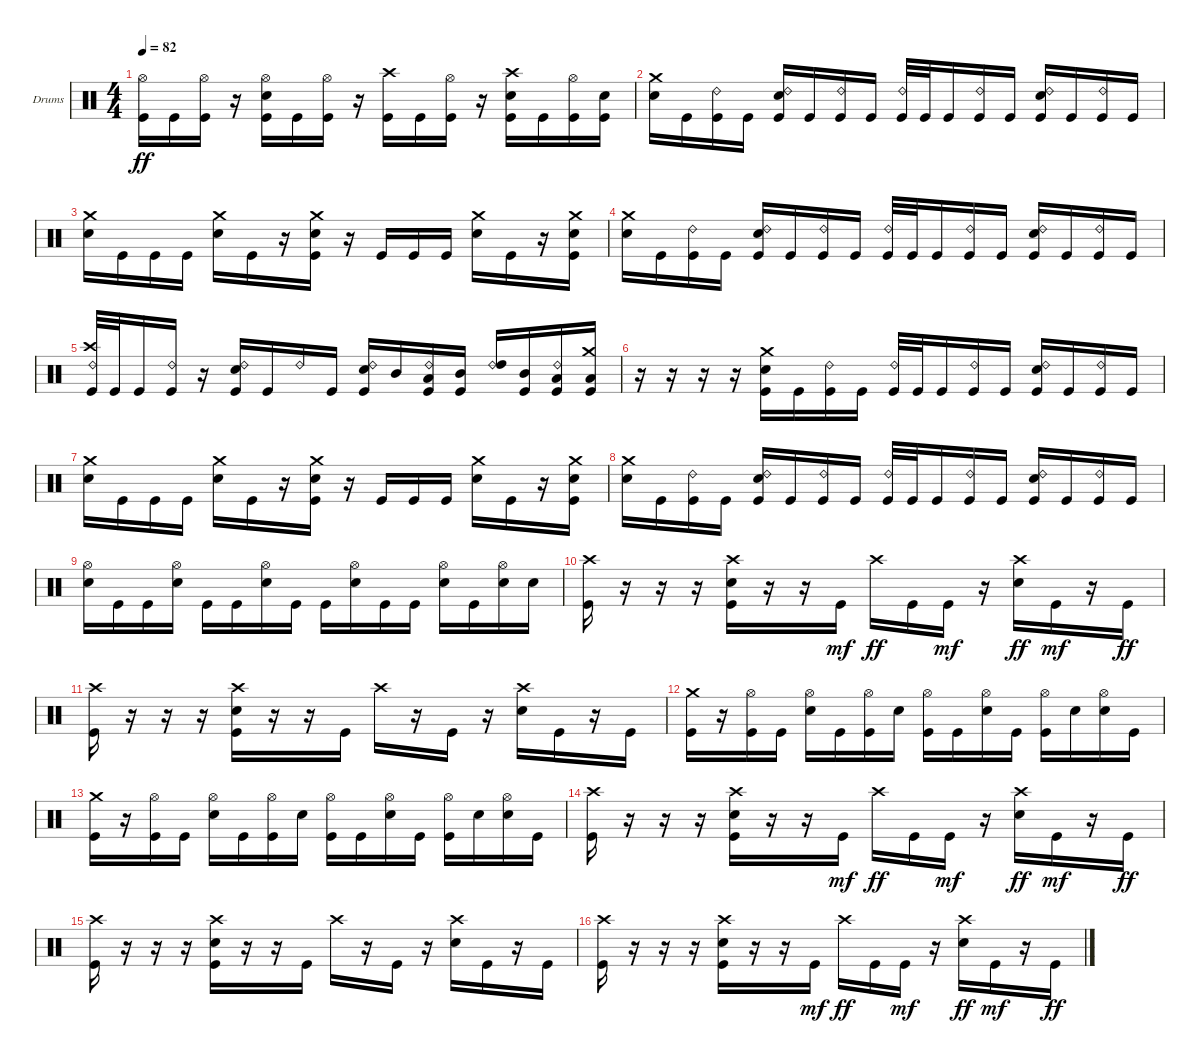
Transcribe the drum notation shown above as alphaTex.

\bracketExtendMode groupsimilarinstruments
\firstSystemTrackNameOrientation horizontal
\otherSystemsTrackNameOrientation horizontal
\track ("Kaleb - Drums" "Drums") {instrument percussion}
\staff {score}
\articulation defaults
\ts (4 4)
\tempo 82
\clef neutral
\ks c
("Kick (hit)" "Hi-Hat (open)").16{dy ff} "Kick (hit)".16 ("Kick (hit)" "Hi-Hat (open)").16 r.16 ("Kick (hit)" "Snare (hit) 2" "Hi-Hat (open)").16 "Kick (hit)".16 ("Kick (hit)" "Hi-Hat (open)").16 r.16 ("Kick (hit)" "Crash high (hit)").16 "Kick (hit)".16 ("Kick (hit)" "Hi-Hat (open)").16 r.16 ("Kick (hit)" "Snare (hit) 2" "Crash high (hit)").16 "Kick (hit)".16 ("Kick (hit)" "Hi-Hat (open)").16 ("Kick (hit)" "Snare (hit) 2").16 |
("Snare (hit) 2" "Crash medium (hit)").16 "Kick (hit)".16 ("Kick (hit)" "Ride (bell) 2").16 "Kick (hit)".16 ("Kick (hit)" "Snare (hit) 2" "Ride (bell) 2").16 "Kick (hit)".16 ("Kick (hit)" "Ride (bell) 2").16 "Kick (hit)".16 ("Kick (hit)" "Ride (bell) 2").32 "Kick (hit)".32 "Kick (hit)".16 ("Kick (hit)" "Ride (bell) 2").16 "Kick (hit)".16 ("Kick (hit)" "Snare (hit) 2" "Ride (bell) 2").16 "Kick (hit)".16 ("Kick (hit)" "Ride (bell) 2").16 "Kick (hit)".16 |
("Snare (hit) 2" "Crash medium (hit)").16 "Kick (hit)".16 "Kick (hit)".16 "Kick (hit)".16 ("Crash medium (hit)" "Snare (hit) 2").16 "Kick (hit)".16 r.16 ("Kick (hit)" "Snare (hit) 2" "Crash medium (hit)").16 r.16 "Kick (hit)".16 "Kick (hit)".16 "Kick (hit)".16 ("Crash medium (hit)" "Snare (hit) 2").16 "Kick (hit)".16 r.16 ("Kick (hit)" "Snare (hit) 2" "Crash medium (hit)").16 |
("Snare (hit) 2" "Crash medium (hit)").16 "Kick (hit)".16 ("Kick (hit)" "Ride (bell) 2").16 "Kick (hit)".16 ("Kick (hit)" "Snare (hit) 2" "Ride (bell) 2").16 "Kick (hit)".16 ("Kick (hit)" "Ride (bell) 2").16 "Kick (hit)".16 ("Kick (hit)" "Ride (bell) 2").32 "Kick (hit)".32 "Kick (hit)".16 ("Kick (hit)" "Ride (bell) 2").16 "Kick (hit)".16 ("Kick (hit)" "Snare (hit) 2" "Ride (bell) 2").16 "Kick (hit)".16 ("Kick (hit)" "Ride (bell) 2").16 "Kick (hit)".16 |
("Kick (hit)" "Ride (bell) 2" "Crash high (hit)").32 "Kick (hit)".32 "Kick (hit)".16 ("Kick (hit)" "Ride (bell) 2").16 r.16 ("Kick (hit)" "Ride (bell) 2" "Snare (hit) 2").16 "Kick (hit)".16 "Ride (bell) 2".16 "Kick (hit)".16 ("Kick (hit)" "Ride (bell) 2" "Snare (hit) 2").16 "Mid Tom (hit)".16 ("Kick (hit)" "Ride (bell) 2" "Low Tom (hit)").16 ("Kick (hit)" "Mid Tom (hit)").16 ("Ride (bell) 2" "High Tom (hit)").16 ("Kick (hit)" "Mid Tom (hit)").16 ("Kick (hit)" "Ride (bell) 2" "Low Tom (hit)").16 ("Kick (hit)" "Low Tom (hit)" "Crash medium (hit)").16 |
r.16 r.16 r.16 r.16 ("Kick (hit)" "Snare (hit) 2" "Crash medium (hit)").16 "Kick (hit)".16 ("Kick (hit)" "Ride (bell) 2").16 "Kick (hit)".16 ("Kick (hit)" "Ride (bell) 2").32 "Kick (hit)".32 "Kick (hit)".16 ("Kick (hit)" "Ride (bell) 2").16 "Kick (hit)".16 ("Kick (hit)" "Snare (hit) 2" "Ride (bell) 2").16 "Kick (hit)".16 ("Kick (hit)" "Ride (bell) 2").16 "Kick (hit)".16 |
("Snare (hit) 2" "Crash medium (hit)").16 "Kick (hit)".16 "Kick (hit)".16 "Kick (hit)".16 ("Crash medium (hit)" "Snare (hit) 2").16 "Kick (hit)".16 r.16 ("Kick (hit)" "Snare (hit) 2" "Crash medium (hit)").16 r.16 "Kick (hit)".16 "Kick (hit)".16 "Kick (hit)".16 ("Crash medium (hit)" "Snare (hit) 2").16 "Kick (hit)".16 r.16 ("Kick (hit)" "Snare (hit) 2" "Crash medium (hit)").16 |
("Snare (hit) 2" "Crash medium (hit)").16 "Kick (hit)".16 ("Kick (hit)" "Ride (bell) 2").16 "Kick (hit)".16 ("Kick (hit)" "Snare (hit) 2" "Ride (bell) 2").16 "Kick (hit)".16 ("Kick (hit)" "Ride (bell) 2").16 "Kick (hit)".16 ("Kick (hit)" "Ride (bell) 2").32 "Kick (hit)".32 "Kick (hit)".16 ("Kick (hit)" "Ride (bell) 2").16 "Kick (hit)".16 ("Kick (hit)" "Snare (hit) 2" "Ride (bell) 2").16 "Kick (hit)".16 ("Kick (hit)" "Ride (bell) 2").16 "Kick (hit)".16 |
("Snare (hit) 2" "Hi-Hat (open)").16 "Kick (hit)".16 "Kick (hit)".16 ("Snare (hit) 2" "Hi-Hat (open)").16 "Kick (hit)".16 "Kick (hit)".16 ("Snare (hit) 2" "Hi-Hat (open)").16 "Kick (hit)".16 "Kick (hit)".16 ("Snare (hit) 2" "Hi-Hat (open)").16 "Kick (hit)".16 "Kick (hit)".16 ("Snare (hit) 2" "Hi-Hat (open)").16 "Kick (hit)".16 ("Snare (hit) 2" "Hi-Hat (open)").16 "Snare (hit) 2".16 |
("Kick (hit)" "Crash high (hit)").16 r.16 r.16 r.16 ("Kick (hit)" "Snare (hit) 2" "Crash high (hit)").16 r.16 r.16 "Kick (hit)".16{dy mf} "Crash high (hit)".16{dy ff} "Kick (hit)".16 "Kick (hit)".16{dy mf} r.16 ("Snare (hit) 2" "Crash high (hit)").16{dy ff} "Kick (hit)".16{dy mf} r.16 "Kick (hit)".16{dy ff} |
("Kick (hit)" "Crash high (hit)").16 r.16 r.16 r.16 ("Kick (hit)" "Crash high (hit)" "Snare (hit) 2").16 r.16 r.16 "Kick (hit)".16 "Crash high (hit)".16 r.16 "Kick (hit)".16 r.16 ("Crash high (hit)" "Snare (hit) 2").16 "Kick (hit)".16 r.16 "Kick (hit)".16 |
("Crash medium (hit)" "Kick (hit)").16 r.16 ("Kick (hit)" "Hi-Hat (open)").16 "Kick (hit)".16 ("Snare (hit) 2" "Hi-Hat (open)").16 "Kick (hit)".16 ("Kick (hit)" "Hi-Hat (open)").16 "Snare (hit) 2".16 ("Kick (hit)" "Hi-Hat (open)").16 "Kick (hit)".16 ("Snare (hit) 2" "Hi-Hat (open)").16 "Kick (hit)".16 ("Kick (hit)" "Hi-Hat (open)").16 "Snare (hit) 2".16 ("Snare (hit) 2" "Hi-Hat (open)").16 "Kick (hit)".16 |
("Crash medium (hit)" "Kick (hit)").16 r.16 ("Kick (hit)" "Hi-Hat (open)").16 "Kick (hit)".16 ("Snare (hit) 2" "Hi-Hat (open)").16 "Kick (hit)".16 ("Kick (hit)" "Hi-Hat (open)").16 "Snare (hit) 2".16 ("Kick (hit)" "Hi-Hat (open)").16 "Kick (hit)".16 ("Snare (hit) 2" "Hi-Hat (open)").16 "Kick (hit)".16 ("Kick (hit)" "Hi-Hat (open)").16 "Snare (hit) 2".16 ("Snare (hit) 2" "Hi-Hat (open)").16 "Kick (hit)".16 |
("Kick (hit)" "Crash high (hit)").16 r.16 r.16 r.16 ("Kick (hit)" "Snare (hit) 2" "Crash high (hit)").16 r.16 r.16 "Kick (hit)".16{dy mf} "Crash high (hit)".16{dy ff} "Kick (hit)".16 "Kick (hit)".16{dy mf} r.16 ("Snare (hit) 2" "Crash high (hit)").16{dy ff} "Kick (hit)".16{dy mf} r.16 "Kick (hit)".16{dy ff} |
("Kick (hit)" "Crash high (hit)").16 r.16 r.16 r.16 ("Kick (hit)" "Crash high (hit)" "Snare (hit) 2").16 r.16 r.16 "Kick (hit)".16 "Crash high (hit)".16 r.16 "Kick (hit)".16 r.16 ("Crash high (hit)" "Snare (hit) 2").16 "Kick (hit)".16 r.16 "Kick (hit)".16 |
("Kick (hit)" "Crash high (hit)").16 r.16 r.16 r.16 ("Kick (hit)" "Snare (hit) 2" "Crash high (hit)").16 r.16 r.16 "Kick (hit)".16{dy mf} "Crash high (hit)".16{dy ff} "Kick (hit)".16 "Kick (hit)".16{dy mf} r.16 ("Snare (hit) 2" "Crash high (hit)").16{dy ff} "Kick (hit)".16{dy mf} r.16 "Kick (hit)".16{dy ff}
